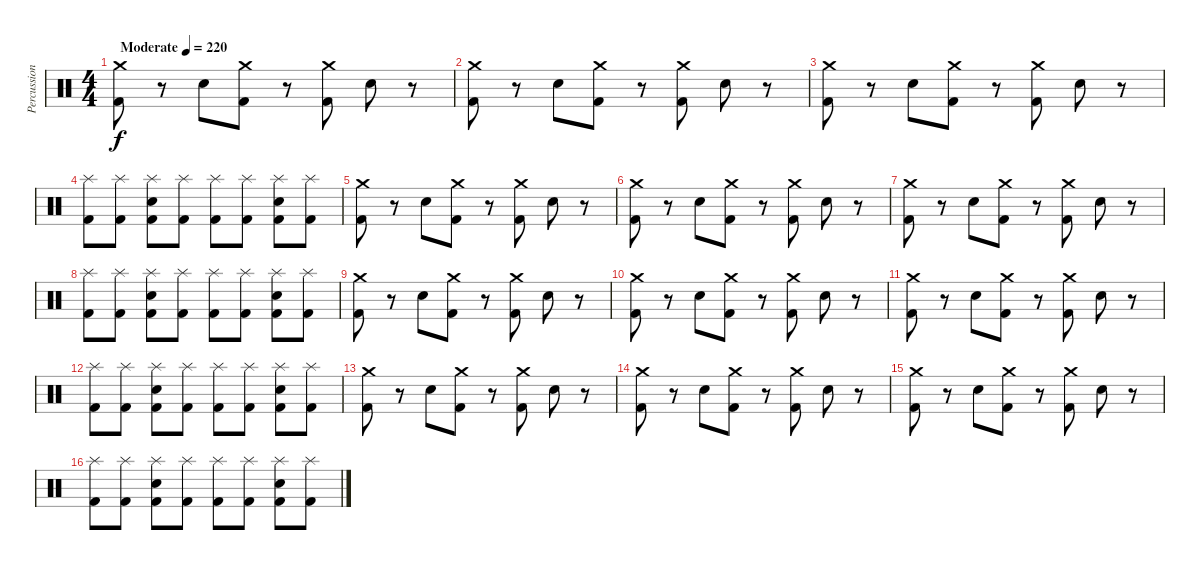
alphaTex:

\track ("Percussion" "Percussion") {instrument percussion}
\staff {score}
\articulation defaults
\ts (4 4)
\tempo (220 "Moderate")
\clef neutral
\ks c
("Crash medium (hit)" "Kick (hit) 2").8{dy f} r.8 "Snare (hit) 2".8 ("Crash medium (hit)" "Kick (hit) 2").8 r.8 ("Crash medium (hit)" "Kick (hit) 2").8 "Snare (hit) 2".8 r.8 |
("Crash medium (hit)" "Kick (hit) 2").8 r.8 "Snare (hit) 2".8 ("Crash medium (hit)" "Kick (hit) 2").8 r.8 ("Crash medium (hit)" "Kick (hit) 2").8 "Snare (hit) 2".8 r.8 |
("Crash medium (hit)" "Kick (hit) 2").8 r.8 "Snare (hit) 2".8 ("Crash medium (hit)" "Kick (hit) 2").8 r.8 ("Crash medium (hit)" "Kick (hit) 2").8 "Snare (hit) 2".8 r.8 |
("Splash (hit)" "Kick (hit) 2").8 ("Splash (hit)" "Kick (hit) 2").8 ("Splash (hit)" "Snare (hit) 2" "Kick (hit) 2").8 ("Splash (hit)" "Kick (hit) 2").8 ("Splash (hit)" "Kick (hit) 2").8 ("Splash (hit)" "Kick (hit) 2").8 ("Splash (hit)" "Snare (hit) 2" "Kick (hit) 2").8 ("Splash (hit)" "Kick (hit) 2").8 |
("Crash medium (hit)" "Kick (hit) 2").8 r.8 "Snare (hit) 2".8 ("Crash medium (hit)" "Kick (hit) 2").8 r.8 ("Crash medium (hit)" "Kick (hit) 2").8 "Snare (hit) 2".8 r.8 |
("Crash medium (hit)" "Kick (hit) 2").8 r.8 "Snare (hit) 2".8 ("Crash medium (hit)" "Kick (hit) 2").8 r.8 ("Crash medium (hit)" "Kick (hit) 2").8 "Snare (hit) 2".8 r.8 |
("Crash medium (hit)" "Kick (hit) 2").8 r.8 "Snare (hit) 2".8 ("Crash medium (hit)" "Kick (hit) 2").8 r.8 ("Crash medium (hit)" "Kick (hit) 2").8 "Snare (hit) 2".8 r.8 |
("Splash (hit)" "Kick (hit) 2").8 ("Splash (hit)" "Kick (hit) 2").8 ("Splash (hit)" "Snare (hit) 2" "Kick (hit) 2").8 ("Splash (hit)" "Kick (hit) 2").8 ("Splash (hit)" "Kick (hit) 2").8 ("Splash (hit)" "Kick (hit) 2").8 ("Splash (hit)" "Snare (hit) 2" "Kick (hit) 2").8 ("Splash (hit)" "Kick (hit) 2").8 |
("Crash medium (hit)" "Kick (hit) 2").8 r.8 "Snare (hit) 2".8 ("Crash medium (hit)" "Kick (hit) 2").8 r.8 ("Crash medium (hit)" "Kick (hit) 2").8 "Snare (hit) 2".8 r.8 |
("Crash medium (hit)" "Kick (hit) 2").8 r.8 "Snare (hit) 2".8 ("Crash medium (hit)" "Kick (hit) 2").8 r.8 ("Crash medium (hit)" "Kick (hit) 2").8 "Snare (hit) 2".8 r.8 |
("Crash medium (hit)" "Kick (hit) 2").8 r.8 "Snare (hit) 2".8 ("Crash medium (hit)" "Kick (hit) 2").8 r.8 ("Crash medium (hit)" "Kick (hit) 2").8 "Snare (hit) 2".8 r.8 |
("Splash (hit)" "Kick (hit) 2").8 ("Splash (hit)" "Kick (hit) 2").8 ("Splash (hit)" "Snare (hit) 2" "Kick (hit) 2").8 ("Splash (hit)" "Kick (hit) 2").8 ("Splash (hit)" "Kick (hit) 2").8 ("Splash (hit)" "Kick (hit) 2").8 ("Splash (hit)" "Snare (hit) 2" "Kick (hit) 2").8 ("Splash (hit)" "Kick (hit) 2").8 |
("Crash medium (hit)" "Kick (hit) 2").8 r.8 "Snare (hit) 2".8 ("Crash medium (hit)" "Kick (hit) 2").8 r.8 ("Crash medium (hit)" "Kick (hit) 2").8 "Snare (hit) 2".8 r.8 |
("Crash medium (hit)" "Kick (hit) 2").8 r.8 "Snare (hit) 2".8 ("Crash medium (hit)" "Kick (hit) 2").8 r.8 ("Crash medium (hit)" "Kick (hit) 2").8 "Snare (hit) 2".8 r.8 |
("Crash medium (hit)" "Kick (hit) 2").8 r.8 "Snare (hit) 2".8 ("Crash medium (hit)" "Kick (hit) 2").8 r.8 ("Crash medium (hit)" "Kick (hit) 2").8 "Snare (hit) 2".8 r.8 |
("Splash (hit)" "Kick (hit) 2").8 ("Splash (hit)" "Kick (hit) 2").8 ("Splash (hit)" "Snare (hit) 2" "Kick (hit) 2").8 ("Splash (hit)" "Kick (hit) 2").8 ("Splash (hit)" "Kick (hit) 2").8 ("Splash (hit)" "Kick (hit) 2").8 ("Splash (hit)" "Snare (hit) 2" "Kick (hit) 2").8 ("Splash (hit)" "Kick (hit) 2").8
